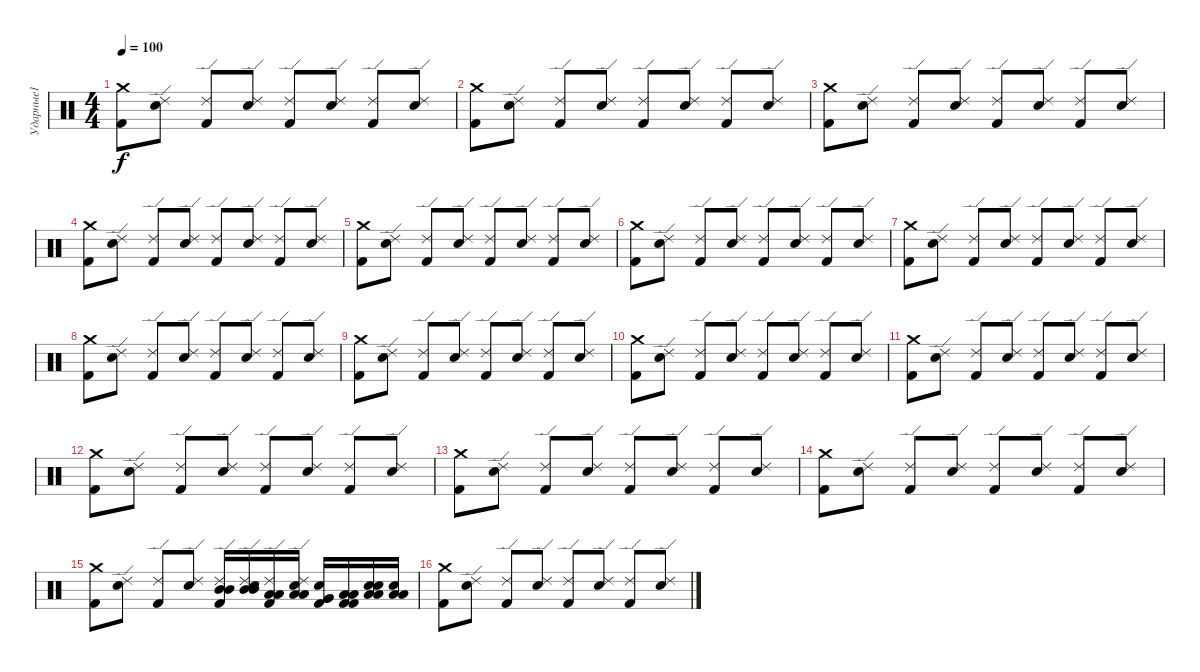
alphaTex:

\track ("Ударные1" "Ударные1") {instrument percussion}
\staff {score}
\articulation defaults
\ts (4 4)
\tempo 100
\clef neutral
\ks c
("Kick (hit) 2" "Crash medium (hit)").8{dy f} ("Snare (hit) 2" "Ride (edge) 2").8 ("Kick (hit) 2" "Ride (edge) 2").8 ("Snare (hit) 2" "Ride (edge) 2").8 ("Kick (hit) 2" "Ride (edge) 2").8 ("Snare (hit) 2" "Ride (edge) 2").8 ("Kick (hit) 2" "Ride (edge) 2").8 ("Snare (hit) 2" "Ride (edge) 2").8 |
("Kick (hit) 2" "Crash medium (hit)").8 ("Snare (hit) 2" "Ride (edge) 2").8 ("Kick (hit) 2" "Ride (edge) 2").8 ("Snare (hit) 2" "Ride (edge) 2").8 ("Kick (hit) 2" "Ride (edge) 2").8 ("Snare (hit) 2" "Ride (edge) 2").8 ("Kick (hit) 2" "Ride (edge) 2").8 ("Snare (hit) 2" "Ride (edge) 2").8 |
("Kick (hit) 2" "Crash medium (hit)").8 ("Snare (hit) 2" "Ride (edge) 2").8 ("Kick (hit) 2" "Ride (edge) 2").8 ("Snare (hit) 2" "Ride (edge) 2").8 ("Kick (hit) 2" "Ride (edge) 2").8 ("Snare (hit) 2" "Ride (edge) 2").8 ("Kick (hit) 2" "Ride (edge) 2").8 ("Snare (hit) 2" "Ride (edge) 2").8 |
("Kick (hit) 2" "Crash medium (hit)").8 ("Snare (hit) 2" "Ride (edge) 2").8 ("Kick (hit) 2" "Ride (edge) 2").8 ("Snare (hit) 2" "Ride (edge) 2").8 ("Kick (hit) 2" "Ride (edge) 2").8 ("Snare (hit) 2" "Ride (edge) 2").8 ("Kick (hit) 2" "Ride (edge) 2").8 ("Snare (hit) 2" "Ride (edge) 2").8 |
("Kick (hit) 2" "Crash medium (hit)").8 ("Snare (hit) 2" "Ride (edge) 2").8 ("Kick (hit) 2" "Ride (edge) 2").8 ("Snare (hit) 2" "Ride (edge) 2").8 ("Kick (hit) 2" "Ride (edge) 2").8 ("Snare (hit) 2" "Ride (edge) 2").8 ("Kick (hit) 2" "Ride (edge) 2").8 ("Snare (hit) 2" "Ride (edge) 2").8 |
("Kick (hit) 2" "Crash medium (hit)").8 ("Snare (hit) 2" "Ride (edge) 2").8 ("Kick (hit) 2" "Ride (edge) 2").8 ("Snare (hit) 2" "Ride (edge) 2").8 ("Kick (hit) 2" "Ride (edge) 2").8 ("Snare (hit) 2" "Ride (edge) 2").8 ("Kick (hit) 2" "Ride (edge) 2").8 ("Snare (hit) 2" "Ride (edge) 2").8 |
("Kick (hit) 2" "Crash medium (hit)").8 ("Snare (hit) 2" "Ride (edge) 2").8 ("Kick (hit) 2" "Ride (edge) 2").8 ("Snare (hit) 2" "Ride (edge) 2").8 ("Kick (hit) 2" "Ride (edge) 2").8 ("Snare (hit) 2" "Ride (edge) 2").8 ("Kick (hit) 2" "Ride (edge) 2").8 ("Snare (hit) 2" "Ride (edge) 2").8 |
("Kick (hit) 2" "Crash medium (hit)").8 ("Snare (hit) 2" "Ride (edge) 2").8 ("Kick (hit) 2" "Ride (edge) 2").8 ("Snare (hit) 2" "Ride (edge) 2").8 ("Kick (hit) 2" "Ride (edge) 2").8 ("Snare (hit) 2" "Ride (edge) 2").8 ("Kick (hit) 2" "Ride (edge) 2").8 ("Snare (hit) 2" "Ride (edge) 2").8 |
("Kick (hit) 2" "Crash medium (hit)").8 ("Snare (hit) 2" "Ride (edge) 2").8 ("Kick (hit) 2" "Ride (edge) 2").8 ("Snare (hit) 2" "Ride (edge) 2").8 ("Kick (hit) 2" "Ride (edge) 2").8 ("Snare (hit) 2" "Ride (edge) 2").8 ("Kick (hit) 2" "Ride (edge) 2").8 ("Snare (hit) 2" "Ride (edge) 2").8 |
("Kick (hit) 2" "Crash medium (hit)").8 ("Snare (hit) 2" "Ride (edge) 2").8 ("Kick (hit) 2" "Ride (edge) 2").8 ("Snare (hit) 2" "Ride (edge) 2").8 ("Kick (hit) 2" "Ride (edge) 2").8 ("Snare (hit) 2" "Ride (edge) 2").8 ("Kick (hit) 2" "Ride (edge) 2").8 ("Snare (hit) 2" "Ride (edge) 2").8 |
("Kick (hit) 2" "Crash medium (hit)").8 ("Snare (hit) 2" "Ride (edge) 2").8 ("Kick (hit) 2" "Ride (edge) 2").8 ("Snare (hit) 2" "Ride (edge) 2").8 ("Kick (hit) 2" "Ride (edge) 2").8 ("Snare (hit) 2" "Ride (edge) 2").8 ("Kick (hit) 2" "Ride (edge) 2").8 ("Snare (hit) 2" "Ride (edge) 2").8 |
("Kick (hit) 2" "Crash medium (hit)").8 ("Snare (hit) 2" "Ride (edge) 2").8 ("Kick (hit) 2" "Ride (edge) 2").8 ("Snare (hit) 2" "Ride (edge) 2").8 ("Kick (hit) 2" "Ride (edge) 2").8 ("Snare (hit) 2" "Ride (edge) 2").8 ("Kick (hit) 2" "Ride (edge) 2").8 ("Snare (hit) 2" "Ride (edge) 2").8 |
("Kick (hit) 2" "Crash medium (hit)").8 ("Snare (hit) 2" "Ride (edge) 2").8 ("Kick (hit) 2" "Ride (edge) 2").8 ("Snare (hit) 2" "Ride (edge) 2").8 ("Kick (hit) 2" "Ride (edge) 2").8 ("Snare (hit) 2" "Ride (edge) 2").8 ("Kick (hit) 2" "Ride (edge) 2").8 ("Snare (hit) 2" "Ride (edge) 2").8 |
("Kick (hit) 2" "Crash medium (hit)").8 ("Snare (hit) 2" "Ride (edge) 2").8 ("Kick (hit) 2" "Ride (edge) 2").8 ("Snare (hit) 2" "Ride (edge) 2").8 ("Kick (hit) 2" "Ride (edge) 2").8 ("Snare (hit) 2" "Ride (edge) 2").8 ("Kick (hit) 2" "Ride (edge) 2").8 ("Snare (hit) 2" "Ride (edge) 2").8 |
("Kick (hit) 2" "Crash medium (hit)").8 ("Snare (hit) 2" "Ride (edge) 2").8 ("Kick (hit) 2" "Ride (edge) 2").8 ("Snare (hit) 2" "Ride (edge) 2").8 ("Kick (hit) 2" "Ride (edge) 2" "Mid Tom (hit)" "Mid Tom (hit)").16 ("Snare (hit) 2" "Ride (edge) 2" "Mid Tom (hit)" "Mid Tom (hit)").16 ("Kick (hit) 2" "Ride (edge) 2" "Low Tom (hit)" "Low Tom (hit)").16 ("Snare (hit) 2" "Ride (edge) 2" "Low Tom (hit)" "Low Tom (hit)").16 ("Snare (hit) 2" "Kick (hit) 2" "Very Low Tom (hit)" "Very Low Tom (hit)").16 ("Low Floor Tom (hit)" "Low Floor Tom (hit)" "Kick (hit) 2" "Kick (hit) 2").16 ("Snare (hit) 2" "Snare (hit) 2" "Low Floor Tom (hit)" "Low Floor Tom (hit)").16 ("Low Tom (hit)" "Low Tom (hit)" "Snare (hit)").16 |
("Kick (hit) 2" "Crash medium (hit)").8 ("Snare (hit) 2" "Ride (edge) 2").8 ("Kick (hit) 2" "Ride (edge) 2").8 ("Snare (hit) 2" "Ride (edge) 2").8 ("Kick (hit) 2" "Ride (edge) 2").8 ("Snare (hit) 2" "Ride (edge) 2").8 ("Kick (hit) 2" "Ride (edge) 2").8 ("Snare (hit) 2" "Ride (edge) 2").8
